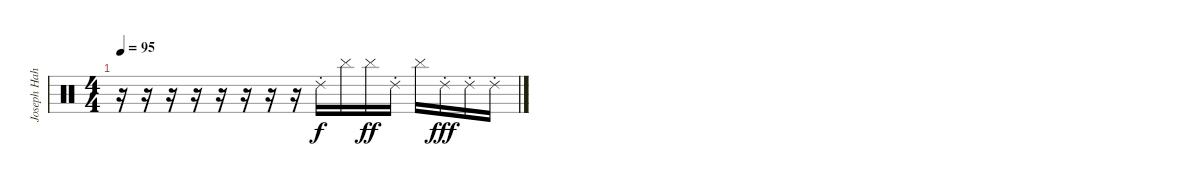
\track ("Joseph Hahn (Strange sounds/Turntables)" "Joseph Hah") {instrument percussion}
\staff {score}
\articulation defaults
\ts (4 4)
\tempo 95
\clef neutral
\ks c
r.16{dy fff} r.16 r.16 r.16 r.16 r.16 r.16 r.16 "Ride (choke) 2".16{dy f} "Cymbal (hit)".16 "Cymbal (hit)".16{dy ff} "Ride (choke) 2".16 "Cymbal (hit)".16 "Ride (choke) 2".16{dy fff} "Ride (choke) 2".16 "Ride (choke) 2".16
